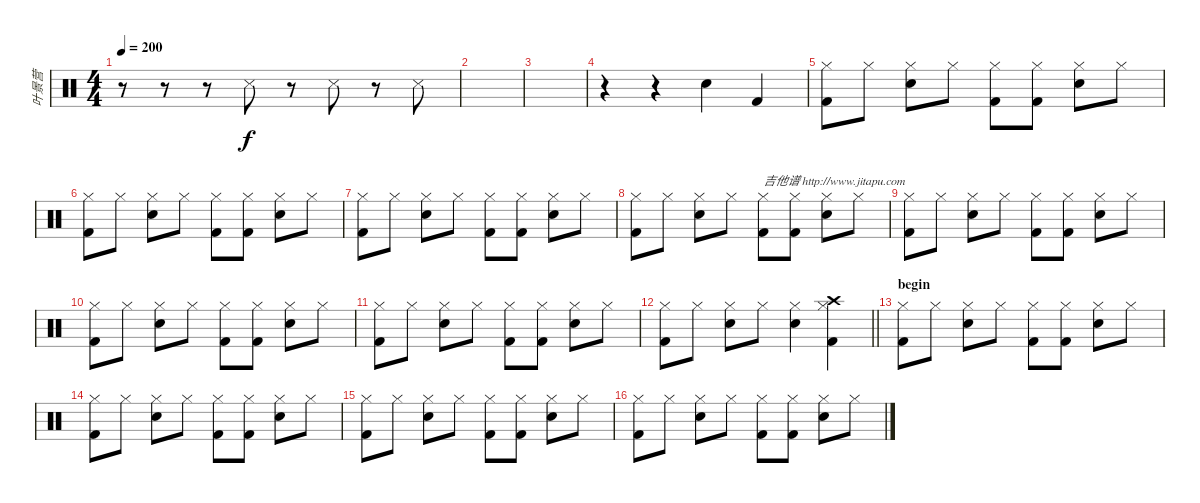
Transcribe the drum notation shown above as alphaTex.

\track ("叶景营" "叶景营") {instrument percussion}
\staff {score}
\articulation defaults
\ts (4 4)
\tempo 200
\clef neutral
\ks c
r.8{dy f} r.8 r.8 "Snare (side stick) 3".8 r.8 "Snare (side stick) 3".8 r.8 "Snare (side stick) 3".8 |
|
|
r.4 r.4 "Electric Snare (hit)".4 "Kick (hit) 2".4 |
("Hi-Hat (closed)" "Kick (hit) 2").8 "Hi-Hat (closed)".8 ("Hi-Hat (closed)" "Electric Snare (hit)").8 "Hi-Hat (closed)".8 ("Hi-Hat (closed)" "Kick (hit) 2").8 ("Hi-Hat (closed)" "Kick (hit) 2").8 ("Hi-Hat (closed)" "Electric Snare (hit)").8 "Hi-Hat (closed)".8 |
("Hi-Hat (closed)" "Kick (hit) 2").8 "Hi-Hat (closed)".8 ("Hi-Hat (closed)" "Electric Snare (hit)").8 "Hi-Hat (closed)".8 ("Hi-Hat (closed)" "Kick (hit) 2").8 ("Hi-Hat (closed)" "Kick (hit) 2").8 ("Hi-Hat (closed)" "Electric Snare (hit)").8 "Hi-Hat (closed)".8 |
("Hi-Hat (closed)" "Kick (hit) 2").8 "Hi-Hat (closed)".8 ("Hi-Hat (closed)" "Electric Snare (hit)").8 "Hi-Hat (closed)".8 ("Hi-Hat (closed)" "Kick (hit) 2").8 ("Hi-Hat (closed)" "Kick (hit) 2").8 ("Hi-Hat (closed)" "Electric Snare (hit)").8 "Hi-Hat (closed)".8 |
("Hi-Hat (closed)" "Kick (hit) 2").8 "Hi-Hat (closed)".8 ("Hi-Hat (closed)" "Electric Snare (hit)").8 "Hi-Hat (closed)".8 ("Hi-Hat (closed)" "Kick (hit) 2").8{txt "吉他谱 http://www.jitapu.com"} ("Hi-Hat (closed)" "Kick (hit) 2").8 ("Hi-Hat (closed)" "Electric Snare (hit)").8 "Hi-Hat (closed)".8 |
("Hi-Hat (closed)" "Kick (hit) 2").8 "Hi-Hat (closed)".8 ("Hi-Hat (closed)" "Electric Snare (hit)").8 "Hi-Hat (closed)".8 ("Hi-Hat (closed)" "Kick (hit) 2").8 ("Hi-Hat (closed)" "Kick (hit) 2").8 ("Hi-Hat (closed)" "Electric Snare (hit)").8 "Hi-Hat (closed)".8 |
("Hi-Hat (closed)" "Kick (hit) 2").8 "Hi-Hat (closed)".8 ("Hi-Hat (closed)" "Electric Snare (hit)").8 "Hi-Hat (closed)".8 ("Hi-Hat (closed)" "Kick (hit) 2").8 ("Hi-Hat (closed)" "Kick (hit) 2").8 ("Hi-Hat (closed)" "Electric Snare (hit)").8 "Hi-Hat (closed)".8 |
("Hi-Hat (closed)" "Kick (hit) 2").8 "Hi-Hat (closed)".8 ("Hi-Hat (closed)" "Electric Snare (hit)").8 "Hi-Hat (closed)".8 ("Hi-Hat (closed)" "Kick (hit) 2").8 ("Hi-Hat (closed)" "Kick (hit) 2").8 ("Hi-Hat (closed)" "Electric Snare (hit)").8 "Hi-Hat (closed)".8 |
\barLineRight lightlight
("Hi-Hat (closed)" "Kick (hit) 2").8 "Hi-Hat (closed)".8 ("Hi-Hat (closed)" "Electric Snare (hit)").8 "Hi-Hat (closed)".8 ("Hi-Hat (closed)" "Electric Snare (hit)").4 ("Crash high (hit)" "Hi-Hat (closed)" "Kick (hit) 2").4 |
\section ("" "begin")
("Hi-Hat (closed)" "Kick (hit) 2").8 "Hi-Hat (closed)".8 ("Hi-Hat (closed)" "Electric Snare (hit)").8 "Hi-Hat (closed)".8 ("Hi-Hat (closed)" "Kick (hit) 2").8 ("Hi-Hat (closed)" "Kick (hit) 2").8 ("Hi-Hat (closed)" "Electric Snare (hit)").8 "Hi-Hat (closed)".8 |
("Hi-Hat (closed)" "Kick (hit) 2").8 "Hi-Hat (closed)".8 ("Hi-Hat (closed)" "Electric Snare (hit)").8 "Hi-Hat (closed)".8 ("Hi-Hat (closed)" "Kick (hit) 2").8 ("Hi-Hat (closed)" "Kick (hit) 2").8 ("Hi-Hat (closed)" "Electric Snare (hit)").8 "Hi-Hat (closed)".8 |
("Hi-Hat (closed)" "Kick (hit) 2").8 "Hi-Hat (closed)".8 ("Hi-Hat (closed)" "Electric Snare (hit)").8 "Hi-Hat (closed)".8 ("Hi-Hat (closed)" "Kick (hit) 2").8 ("Hi-Hat (closed)" "Kick (hit) 2").8 ("Hi-Hat (closed)" "Electric Snare (hit)").8 "Hi-Hat (closed)".8 |
("Hi-Hat (closed)" "Kick (hit) 2").8 "Hi-Hat (closed)".8 ("Hi-Hat (closed)" "Electric Snare (hit)").8 "Hi-Hat (closed)".8 ("Hi-Hat (closed)" "Kick (hit) 2").8 ("Hi-Hat (closed)" "Kick (hit) 2").8 ("Hi-Hat (closed)" "Electric Snare (hit)").8 "Hi-Hat (closed)".8
